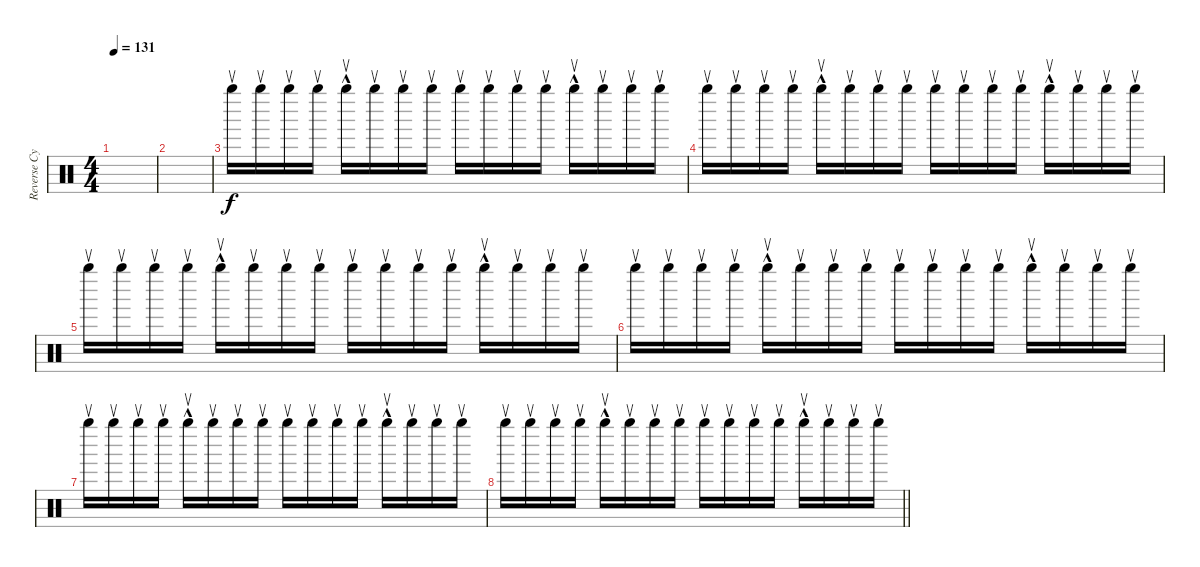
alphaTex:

\track ("Reverse Cymbal" "Reverse Cy") {instrument percussion}
\staff {score}
\articulation defaults
\ts (4 4)
\tempo 131
\clef neutral
\ks c
|
|
"Right Maraca (return)".16 "Right Maraca (return)".16 "Right Maraca (return)".16 "Right Maraca (return)".16 "Right Maraca (return)"{hac}.16 "Right Maraca (return)".16 "Right Maraca (return)".16 "Right Maraca (return)".16 "Right Maraca (return)".16 "Right Maraca (return)".16 "Right Maraca (return)".16 "Right Maraca (return)".16 "Right Maraca (return)"{hac}.16 "Right Maraca (return)".16 "Right Maraca (return)".16 "Right Maraca (return)".16 |
"Right Maraca (return)".16 "Right Maraca (return)".16 "Right Maraca (return)".16 "Right Maraca (return)".16 "Right Maraca (return)"{hac}.16 "Right Maraca (return)".16 "Right Maraca (return)".16 "Right Maraca (return)".16 "Right Maraca (return)".16 "Right Maraca (return)".16 "Right Maraca (return)".16 "Right Maraca (return)".16 "Right Maraca (return)"{hac}.16 "Right Maraca (return)".16 "Right Maraca (return)".16 "Right Maraca (return)".16 |
"Right Maraca (return)".16 "Right Maraca (return)".16 "Right Maraca (return)".16 "Right Maraca (return)".16 "Right Maraca (return)"{hac}.16 "Right Maraca (return)".16 "Right Maraca (return)".16 "Right Maraca (return)".16 "Right Maraca (return)".16 "Right Maraca (return)".16 "Right Maraca (return)".16 "Right Maraca (return)".16 "Right Maraca (return)"{hac}.16 "Right Maraca (return)".16 "Right Maraca (return)".16 "Right Maraca (return)".16 |
"Right Maraca (return)".16 "Right Maraca (return)".16 "Right Maraca (return)".16 "Right Maraca (return)".16 "Right Maraca (return)"{hac}.16 "Right Maraca (return)".16 "Right Maraca (return)".16 "Right Maraca (return)".16 "Right Maraca (return)".16 "Right Maraca (return)".16 "Right Maraca (return)".16 "Right Maraca (return)".16 "Right Maraca (return)"{hac}.16 "Right Maraca (return)".16 "Right Maraca (return)".16 "Right Maraca (return)".16 |
"Right Maraca (return)".16 "Right Maraca (return)".16 "Right Maraca (return)".16 "Right Maraca (return)".16 "Right Maraca (return)"{hac}.16 "Right Maraca (return)".16 "Right Maraca (return)".16 "Right Maraca (return)".16 "Right Maraca (return)".16 "Right Maraca (return)".16 "Right Maraca (return)".16 "Right Maraca (return)".16 "Right Maraca (return)"{hac}.16 "Right Maraca (return)".16 "Right Maraca (return)".16 "Right Maraca (return)".16 |
\barLineRight lightlight "Right Maraca (return)".16 "Right Maraca (return)".16 "Right Maraca (return)".16 "Right Maraca (return)".16 "Right Maraca (return)"{hac}.16 "Right Maraca (return)".16 "Right Maraca (return)".16 "Right Maraca (return)".16 "Right Maraca (return)".16 "Right Maraca (return)".16 "Right Maraca (return)".16 "Right Maraca (return)".16 "Right Maraca (return)"{hac}.16 "Right Maraca (return)".16 "Right Maraca (return)".16 "Right Maraca (return)".16
